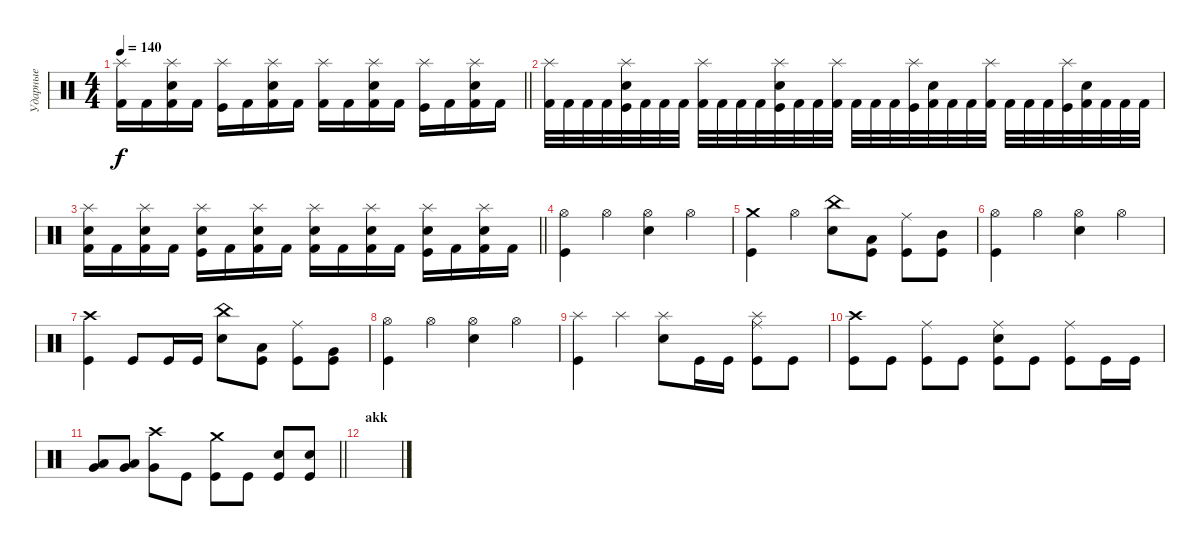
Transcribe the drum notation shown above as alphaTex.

\track ("Ударные" "Ударные") {instrument percussion}
\staff {score}
\articulation defaults
\ts (4 4)
\tempo 140
\clef neutral
\barLineRight lightlight
\ks c
("Splash (hit)" "Kick (hit) 2").16{dy f} "Kick (hit) 2".16 ("Splash (hit)" "Electric Snare (hit)" "Kick (hit) 2").16 "Kick (hit) 2".16 ("Splash (hit)" "Kick (hit)").16 "Kick (hit) 2".16 ("Splash (hit)" "Electric Snare (hit)" "Kick (hit) 2").16 "Kick (hit) 2".16 ("Splash (hit)" "Kick (hit) 2").16 "Kick (hit) 2".16 ("Splash (hit)" "Electric Snare (hit)" "Kick (hit) 2").16 "Kick (hit) 2".16 ("Splash (hit)" "Kick (hit)").16 "Kick (hit) 2".16 ("Splash (hit)" "Electric Snare (hit)" "Kick (hit) 2").16 "Kick (hit) 2".16 |
("Splash (hit)" "Kick (hit) 2").32 "Kick (hit) 2".32 "Kick (hit) 2".32 "Kick (hit) 2".32 ("Splash (hit)" "Electric Snare (hit)" "Kick (hit)").32 "Kick (hit) 2".32 "Kick (hit) 2".32 "Kick (hit) 2".32 ("Splash (hit)" "Kick (hit) 2").32 "Kick (hit) 2".32 "Kick (hit) 2".32 "Kick (hit) 2".32 ("Splash (hit)" "Electric Snare (hit)" "Kick (hit)").32 "Kick (hit) 2".32 "Kick (hit) 2".32 ("Splash (hit)" "Kick (hit) 2").32 "Kick (hit) 2".32 "Kick (hit) 2".32 "Kick (hit) 2".32 ("Splash (hit)" "Kick (hit)").32 ("Electric Snare (hit)" "Kick (hit) 2").32 "Kick (hit) 2".32 "Kick (hit) 2".32 ("Splash (hit)" "Kick (hit) 2").32 "Kick (hit) 2".32 "Kick (hit) 2".32 "Kick (hit) 2".32 ("Splash (hit)" "Kick (hit)").32 ("Electric Snare (hit)" "Kick (hit) 2").32 "Kick (hit) 2".32 "Kick (hit) 2".32 "Kick (hit) 2".32 |
\barLineRight lightlight
("Splash (hit)" "Electric Snare (hit)" "Kick (hit) 2").16 "Kick (hit) 2".16 ("Splash (hit)" "Electric Snare (hit)" "Kick (hit) 2").16 "Kick (hit) 2".16 ("Splash (hit)" "Electric Snare (hit)" "Kick (hit)").16 "Kick (hit) 2".16 ("Splash (hit)" "Electric Snare (hit)" "Kick (hit) 2").16 "Kick (hit) 2".16 ("Splash (hit)" "Electric Snare (hit)" "Kick (hit) 2").16 "Kick (hit) 2".16 ("Splash (hit)" "Electric Snare (hit)" "Kick (hit) 2").16 "Kick (hit) 2".16 ("Splash (hit)" "Electric Snare (hit)" "Kick (hit)").16 "Kick (hit) 2".16 ("Splash (hit)" "Electric Snare (hit)" "Kick (hit) 2").16 "Kick (hit) 2".16 |
\section ("" " ")
("Hi-Hat (open)" "Kick (hit)").4 "Hi-Hat (open)".4 ("Hi-Hat (open)" "Electric Snare (hit)").4 "Hi-Hat (open)".4 |
("Crash medium (hit)" "Kick (hit)").4 "Hi-Hat (open)".4 ("China (hit)" "Electric Snare (hit)").8 ("Low Tom (hit)" "Kick (hit)").8 ("Ride (middle)" "Kick (hit)").8 ("Mid Tom (hit)" "Kick (hit)").8 |
("Hi-Hat (open)" "Kick (hit)").4 "Hi-Hat (open)".4 ("Hi-Hat (open)" "Electric Snare (hit)").4 "Hi-Hat (open)".4 |
("Crash high (hit)" "Kick (hit)").4 "Kick (hit)".8 "Kick (hit)".16 "Kick (hit)".16 ("China (hit)" "Electric Snare (hit)").8 ("Low Tom (hit)" "Kick (hit)").8 ("Ride (middle)" "Kick (hit)").8 ("Very Low Tom (hit)" "Kick (hit)").8 |
("Hi-Hat (open)" "Kick (hit)").4 "Hi-Hat (open)".4 ("Hi-Hat (open)" "Electric Snare (hit)").4 "Hi-Hat (open)".4 |
("Splash (hit)" "Kick (hit)").4 "Splash (hit)".4 ("Splash (hit)" "Electric Snare (hit)").8 "Kick (hit)".16 "Kick (hit)".16 ("Splash (hit)" "Ride (middle)" "Kick (hit)").8 "Kick (hit)".8 |
("Crash high (hit)" "Kick (hit)").8 "Kick (hit)".8 ("Ride (middle)" "Kick (hit)").8 "Kick (hit)".8 ("Ride (middle)" "Electric Snare (hit)" "Kick (hit)").8 "Kick (hit)".8 ("Ride (middle)" "Kick (hit)").8 "Kick (hit)".16 "Kick (hit)".16 |
\barLineRight lightlight
("Very Low Tom (hit)" "Low Tom (hit)").8 ("Very Low Tom (hit)" "Low Tom (hit)").8 ("Crash high (hit)" "Very Low Tom (hit)").8 "Kick (hit)".8 ("Crash medium (hit)" "Kick (hit)").8 "Kick (hit)".8 ("Electric Snare (hit)" "Kick (hit)").8 ("Electric Snare (hit)" "Kick (hit)").8 |
\section ("" "akk")
